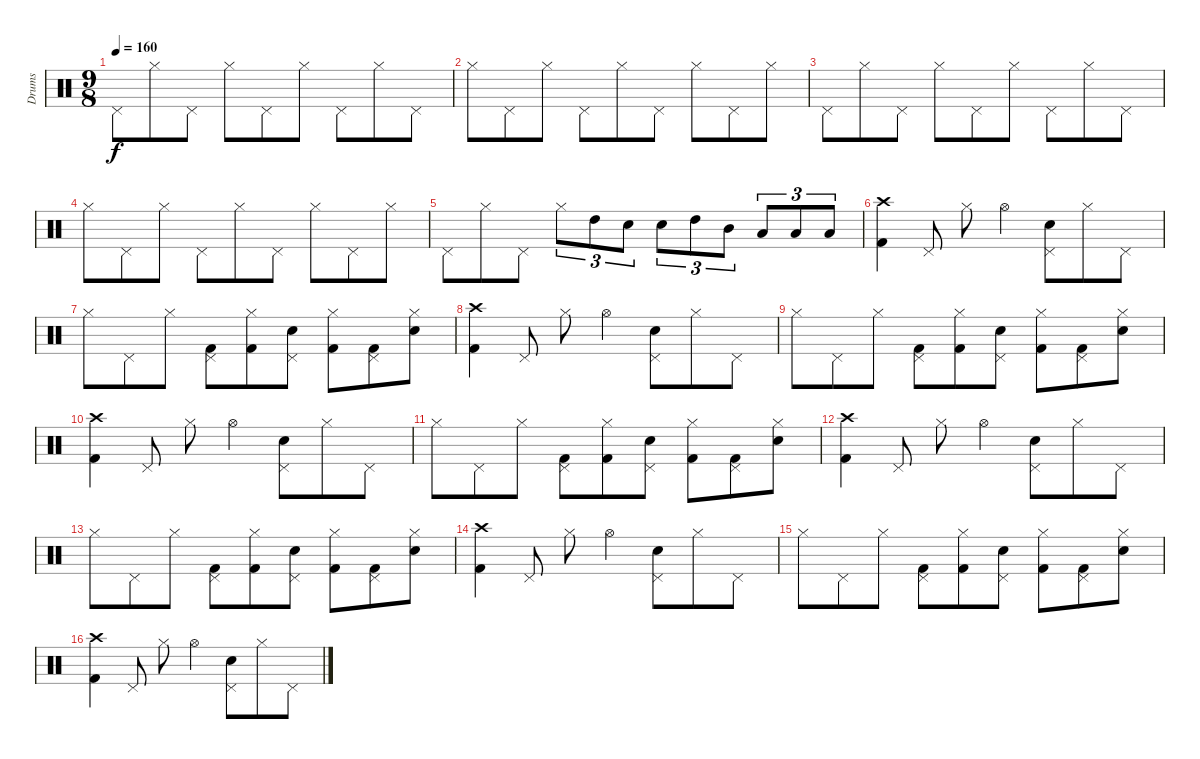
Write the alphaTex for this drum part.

\track ("Drums" "Drums") {instrument percussion}
\staff {score}
\articulation defaults
\ts (9 8)
\tempo 160
\clef neutral
\ks c "Pedal Hi-Hat (hit)".8{dy f} "Hi-Hat (closed)".8 "Pedal Hi-Hat (hit)".8 "Hi-Hat (closed)".8 "Pedal Hi-Hat (hit)".8 "Hi-Hat (closed)".8 "Pedal Hi-Hat (hit)".8 "Hi-Hat (closed)".8 "Pedal Hi-Hat (hit)".8
|
"Hi-Hat (closed)".8 "Pedal Hi-Hat (hit)".8 "Hi-Hat (closed)".8 "Pedal Hi-Hat (hit)".8 "Hi-Hat (closed)".8 "Pedal Hi-Hat (hit)".8 "Hi-Hat (closed)".8 "Pedal Hi-Hat (hit)".8 "Hi-Hat (closed)".8 |
"Pedal Hi-Hat (hit)".8 "Hi-Hat (closed)".8 "Pedal Hi-Hat (hit)".8 "Hi-Hat (closed)".8 "Pedal Hi-Hat (hit)".8 "Hi-Hat (closed)".8 "Pedal Hi-Hat (hit)".8 "Hi-Hat (closed)".8 "Pedal Hi-Hat (hit)".8 |
"Hi-Hat (closed)".8 "Pedal Hi-Hat (hit)".8 "Hi-Hat (closed)".8 "Pedal Hi-Hat (hit)".8 "Hi-Hat (closed)".8 "Pedal Hi-Hat (hit)".8 "Hi-Hat (closed)".8 "Pedal Hi-Hat (hit)".8 "Hi-Hat (closed)".8 |
"Pedal Hi-Hat (hit)".8 "Hi-Hat (closed)".8 "Pedal Hi-Hat (hit)".8 "Hi-Hat (closed)".8{tu (3 2)} "High Tom (hit)".8{tu (3 2)} "Electric Snare (hit)".8{tu (3 2)} "Electric Snare (hit)".8{tu (3 2)} "High Tom (hit)".8{tu (3 2)} "Mid Tom (hit)".8{tu (3 2)} "Low Tom (hit)".8{tu (3 2)} "Low Tom (hit)".8{tu (3 2)} "Low Tom (hit)".8{tu (3 2)} |
("Crash high (hit)" "Kick (hit) 2").4 "Pedal Hi-Hat (hit)".8 "Hi-Hat (closed)".8 "Hi-Hat (open)".4 ("Pedal Hi-Hat (hit)" "Electric Snare (hit)").8 "Hi-Hat (closed)".8 "Pedal Hi-Hat (hit)".8 |
"Hi-Hat (closed)".8 "Pedal Hi-Hat (hit)".8 "Hi-Hat (closed)".8 ("Pedal Hi-Hat (hit)" "Kick (hit) 2").8 ("Hi-Hat (closed)" "Kick (hit) 2").8 ("Pedal Hi-Hat (hit)" "Electric Snare (hit)").8 ("Hi-Hat (closed)" "Kick (hit) 2").8 ("Pedal Hi-Hat (hit)" "Kick (hit) 2").8 ("Hi-Hat (closed)" "Electric Snare (hit)").8 |
("Crash high (hit)" "Kick (hit) 2").4 "Pedal Hi-Hat (hit)".8 "Hi-Hat (closed)".8 "Hi-Hat (open)".4 ("Pedal Hi-Hat (hit)" "Electric Snare (hit)").8 "Hi-Hat (closed)".8 "Pedal Hi-Hat (hit)".8 |
"Hi-Hat (closed)".8 "Pedal Hi-Hat (hit)".8 "Hi-Hat (closed)".8 ("Pedal Hi-Hat (hit)" "Kick (hit) 2").8 ("Hi-Hat (closed)" "Kick (hit) 2").8 ("Pedal Hi-Hat (hit)" "Electric Snare (hit)").8 ("Hi-Hat (closed)" "Kick (hit) 2").8 ("Pedal Hi-Hat (hit)" "Kick (hit) 2").8 ("Hi-Hat (closed)" "Electric Snare (hit)").8 |
("Crash high (hit)" "Kick (hit) 2").4 "Pedal Hi-Hat (hit)".8 "Hi-Hat (closed)".8 "Hi-Hat (open)".4 ("Pedal Hi-Hat (hit)" "Electric Snare (hit)").8 "Hi-Hat (closed)".8 "Pedal Hi-Hat (hit)".8 |
"Hi-Hat (closed)".8 "Pedal Hi-Hat (hit)".8 "Hi-Hat (closed)".8 ("Pedal Hi-Hat (hit)" "Kick (hit) 2").8 ("Hi-Hat (closed)" "Kick (hit) 2").8 ("Pedal Hi-Hat (hit)" "Electric Snare (hit)").8 ("Hi-Hat (closed)" "Kick (hit) 2").8 ("Pedal Hi-Hat (hit)" "Kick (hit) 2").8 ("Hi-Hat (closed)" "Electric Snare (hit)").8 |
("Crash high (hit)" "Kick (hit) 2").4 "Pedal Hi-Hat (hit)".8 "Hi-Hat (closed)".8 "Hi-Hat (open)".4 ("Pedal Hi-Hat (hit)" "Electric Snare (hit)").8 "Hi-Hat (closed)".8 "Pedal Hi-Hat (hit)".8 |
"Hi-Hat (closed)".8 "Pedal Hi-Hat (hit)".8 "Hi-Hat (closed)".8 ("Pedal Hi-Hat (hit)" "Kick (hit) 2").8 ("Hi-Hat (closed)" "Kick (hit) 2").8 ("Pedal Hi-Hat (hit)" "Electric Snare (hit)").8 ("Hi-Hat (closed)" "Kick (hit) 2").8 ("Pedal Hi-Hat (hit)" "Kick (hit) 2").8 ("Hi-Hat (closed)" "Electric Snare (hit)").8 |
("Crash high (hit)" "Kick (hit) 2").4 "Pedal Hi-Hat (hit)".8 "Hi-Hat (closed)".8 "Hi-Hat (open)".4 ("Pedal Hi-Hat (hit)" "Electric Snare (hit)").8 "Hi-Hat (closed)".8 "Pedal Hi-Hat (hit)".8 |
"Hi-Hat (closed)".8 "Pedal Hi-Hat (hit)".8 "Hi-Hat (closed)".8 ("Pedal Hi-Hat (hit)" "Kick (hit) 2").8 ("Hi-Hat (closed)" "Kick (hit) 2").8 ("Pedal Hi-Hat (hit)" "Electric Snare (hit)").8 ("Hi-Hat (closed)" "Kick (hit) 2").8 ("Pedal Hi-Hat (hit)" "Kick (hit) 2").8 ("Hi-Hat (closed)" "Electric Snare (hit)").8 |
("Crash high (hit)" "Kick (hit) 2").4 "Pedal Hi-Hat (hit)".8 "Hi-Hat (closed)".8 "Hi-Hat (open)".4 ("Pedal Hi-Hat (hit)" "Electric Snare (hit)").8 "Hi-Hat (closed)".8 "Pedal Hi-Hat (hit)".8
